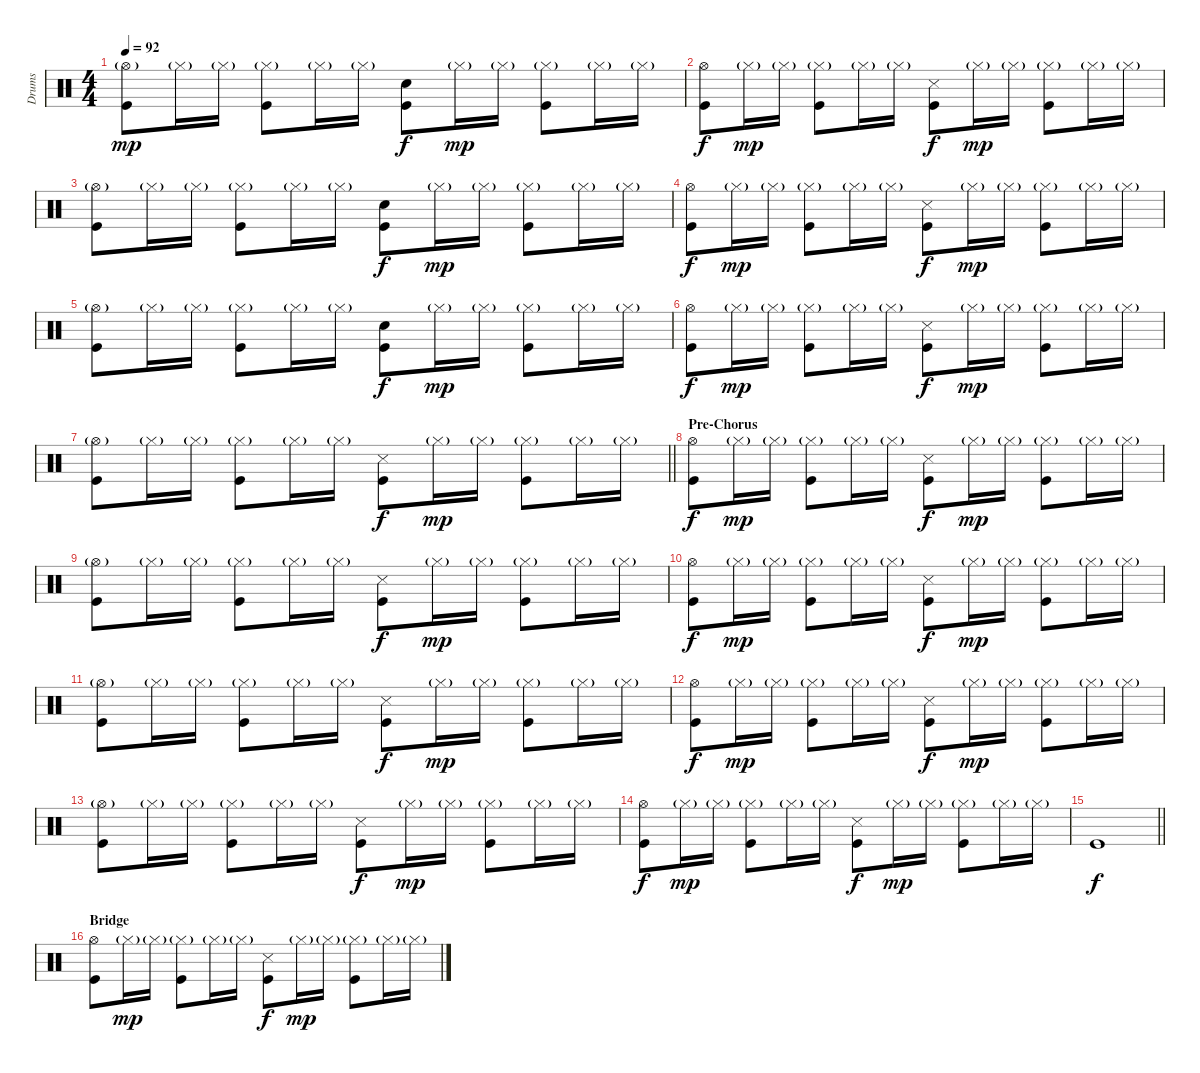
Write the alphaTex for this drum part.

\track ("Drums" "Drums") {instrument percussion}
\staff {score}
\articulation defaults
\ts (4 4)
\tempo 92
\clef neutral
\ks c
("Hi-Hat (open)"{g} "Kick (hit)").8{dy mp} "Hi-Hat (closed)"{g}.16 "Hi-Hat (closed)"{g}.16 ("Hi-Hat (closed)"{g} "Kick (hit)").8 "Hi-Hat (closed)"{g}.16 "Hi-Hat (closed)"{g}.16 ("Snare (hit) 2" "Kick (hit)").8{dy f} "Hi-Hat (closed)"{g}.16{dy mp} "Hi-Hat (closed)"{g}.16 ("Hi-Hat (closed)"{g} "Kick (hit)").8 "Hi-Hat (closed)"{g}.16 "Hi-Hat (closed)"{g}.16 |
("Hi-Hat (open)" "Kick (hit)").8{dy f} "Hi-Hat (closed)"{g}.16{dy mp} "Hi-Hat (closed)"{g}.16 ("Hi-Hat (closed)"{g} "Kick (hit)").8 "Hi-Hat (closed)"{g}.16 "Hi-Hat (closed)"{g}.16 ("Metronome (hit)" "Kick (hit)").8{dy f} "Hi-Hat (closed)"{g}.16{dy mp} "Hi-Hat (closed)"{g}.16 ("Hi-Hat (closed)"{g} "Kick (hit)").8 "Hi-Hat (closed)"{g}.16 "Hi-Hat (closed)"{g}.16 |
("Hi-Hat (open)"{g} "Kick (hit)").8 "Hi-Hat (closed)"{g}.16 "Hi-Hat (closed)"{g}.16 ("Hi-Hat (closed)"{g} "Kick (hit)").8 "Hi-Hat (closed)"{g}.16 "Hi-Hat (closed)"{g}.16 ("Snare (hit) 2" "Kick (hit)").8{dy f} "Hi-Hat (closed)"{g}.16{dy mp} "Hi-Hat (closed)"{g}.16 ("Hi-Hat (closed)"{g} "Kick (hit)").8 "Hi-Hat (closed)"{g}.16 "Hi-Hat (closed)"{g}.16 |
("Hi-Hat (open)" "Kick (hit)").8{dy f} "Hi-Hat (closed)"{g}.16{dy mp} "Hi-Hat (closed)"{g}.16 ("Hi-Hat (closed)"{g} "Kick (hit)").8 "Hi-Hat (closed)"{g}.16 "Hi-Hat (closed)"{g}.16 ("Metronome (hit)" "Kick (hit)").8{dy f} "Hi-Hat (closed)"{g}.16{dy mp} "Hi-Hat (closed)"{g}.16 ("Hi-Hat (closed)"{g} "Kick (hit)").8 "Hi-Hat (closed)"{g}.16 "Hi-Hat (closed)"{g}.16 |
("Hi-Hat (open)"{g} "Kick (hit)").8 "Hi-Hat (closed)"{g}.16 "Hi-Hat (closed)"{g}.16 ("Hi-Hat (closed)"{g} "Kick (hit)").8 "Hi-Hat (closed)"{g}.16 "Hi-Hat (closed)"{g}.16 ("Snare (hit) 2" "Kick (hit)").8{dy f} "Hi-Hat (closed)"{g}.16{dy mp} "Hi-Hat (closed)"{g}.16 ("Hi-Hat (closed)"{g} "Kick (hit)").8 "Hi-Hat (closed)"{g}.16 "Hi-Hat (closed)"{g}.16 |
("Hi-Hat (open)" "Kick (hit)").8{dy f} "Hi-Hat (closed)"{g}.16{dy mp} "Hi-Hat (closed)"{g}.16 ("Hi-Hat (closed)"{g} "Kick (hit)").8 "Hi-Hat (closed)"{g}.16 "Hi-Hat (closed)"{g}.16 ("Metronome (hit)" "Kick (hit)").8{dy f} "Hi-Hat (closed)"{g}.16{dy mp} "Hi-Hat (closed)"{g}.16 ("Hi-Hat (closed)"{g} "Kick (hit)").8 "Hi-Hat (closed)"{g}.16 "Hi-Hat (closed)"{g}.16 |
\barLineRight lightlight
("Hi-Hat (open)"{g} "Kick (hit)").8 "Hi-Hat (closed)"{g}.16 "Hi-Hat (closed)"{g}.16 ("Hi-Hat (closed)"{g} "Kick (hit)").8 "Hi-Hat (closed)"{g}.16 "Hi-Hat (closed)"{g}.16 ("Metronome (hit)" "Kick (hit)").8{dy f} "Hi-Hat (closed)"{g}.16{dy mp} "Hi-Hat (closed)"{g}.16 ("Hi-Hat (closed)"{g} "Kick (hit)").8 "Hi-Hat (closed)"{g}.16 "Hi-Hat (closed)"{g}.16 |
\section ("" "Pre-Chorus")
("Hi-Hat (open)" "Kick (hit)").8{dy f} "Hi-Hat (closed)"{g}.16{dy mp} "Hi-Hat (closed)"{g}.16 ("Hi-Hat (closed)"{g} "Kick (hit)").8 "Hi-Hat (closed)"{g}.16 "Hi-Hat (closed)"{g}.16 ("Metronome (hit)" "Kick (hit)").8{dy f} "Hi-Hat (closed)"{g}.16{dy mp} "Hi-Hat (closed)"{g}.16 ("Hi-Hat (closed)"{g} "Kick (hit)").8 "Hi-Hat (closed)"{g}.16 "Hi-Hat (closed)"{g}.16 |
("Hi-Hat (open)"{g} "Kick (hit)").8 "Hi-Hat (closed)"{g}.16 "Hi-Hat (closed)"{g}.16 ("Hi-Hat (closed)"{g} "Kick (hit)").8 "Hi-Hat (closed)"{g}.16 "Hi-Hat (closed)"{g}.16 ("Metronome (hit)" "Kick (hit)").8{dy f} "Hi-Hat (closed)"{g}.16{dy mp} "Hi-Hat (closed)"{g}.16 ("Hi-Hat (closed)"{g} "Kick (hit)").8 "Hi-Hat (closed)"{g}.16 "Hi-Hat (closed)"{g}.16 |
("Hi-Hat (open)" "Kick (hit)").8{dy f} "Hi-Hat (closed)"{g}.16{dy mp} "Hi-Hat (closed)"{g}.16 ("Hi-Hat (closed)"{g} "Kick (hit)").8 "Hi-Hat (closed)"{g}.16 "Hi-Hat (closed)"{g}.16 ("Metronome (hit)" "Kick (hit)").8{dy f} "Hi-Hat (closed)"{g}.16{dy mp} "Hi-Hat (closed)"{g}.16 ("Hi-Hat (closed)"{g} "Kick (hit)").8 "Hi-Hat (closed)"{g}.16 "Hi-Hat (closed)"{g}.16 |
("Hi-Hat (open)"{g} "Kick (hit)").8 "Hi-Hat (closed)"{g}.16 "Hi-Hat (closed)"{g}.16 ("Hi-Hat (closed)"{g} "Kick (hit)").8 "Hi-Hat (closed)"{g}.16 "Hi-Hat (closed)"{g}.16 ("Metronome (hit)" "Kick (hit)").8{dy f} "Hi-Hat (closed)"{g}.16{dy mp} "Hi-Hat (closed)"{g}.16 ("Hi-Hat (closed)"{g} "Kick (hit)").8 "Hi-Hat (closed)"{g}.16 "Hi-Hat (closed)"{g}.16 |
("Hi-Hat (open)" "Kick (hit)").8{dy f} "Hi-Hat (closed)"{g}.16{dy mp} "Hi-Hat (closed)"{g}.16 ("Hi-Hat (closed)"{g} "Kick (hit)").8 "Hi-Hat (closed)"{g}.16 "Hi-Hat (closed)"{g}.16 ("Metronome (hit)" "Kick (hit)").8{dy f} "Hi-Hat (closed)"{g}.16{dy mp} "Hi-Hat (closed)"{g}.16 ("Hi-Hat (closed)"{g} "Kick (hit)").8 "Hi-Hat (closed)"{g}.16 "Hi-Hat (closed)"{g}.16 |
("Hi-Hat (open)"{g} "Kick (hit)").8 "Hi-Hat (closed)"{g}.16 "Hi-Hat (closed)"{g}.16 ("Hi-Hat (closed)"{g} "Kick (hit)").8 "Hi-Hat (closed)"{g}.16 "Hi-Hat (closed)"{g}.16 ("Metronome (hit)" "Kick (hit)").8{dy f} "Hi-Hat (closed)"{g}.16{dy mp} "Hi-Hat (closed)"{g}.16 ("Hi-Hat (closed)"{g} "Kick (hit)").8 "Hi-Hat (closed)"{g}.16 "Hi-Hat (closed)"{g}.16 |
("Hi-Hat (open)" "Kick (hit)").8{dy f} "Hi-Hat (closed)"{g}.16{dy mp} "Hi-Hat (closed)"{g}.16 ("Hi-Hat (closed)"{g} "Kick (hit)").8 "Hi-Hat (closed)"{g}.16 "Hi-Hat (closed)"{g}.16 ("Metronome (hit)" "Kick (hit)").8{dy f} "Hi-Hat (closed)"{g}.16{dy mp} "Hi-Hat (closed)"{g}.16 ("Hi-Hat (closed)"{g} "Kick (hit)").8 "Hi-Hat (closed)"{g}.16 "Hi-Hat (closed)"{g}.16 |
\barLineRight lightlight "Kick (hit)".1{dy f}
|
\section ("" "Bridge")
("Hi-Hat (open)" "Kick (hit)").8 "Hi-Hat (closed)"{g}.16{dy mp} "Hi-Hat (closed)"{g}.16 ("Hi-Hat (closed)"{g} "Kick (hit)").8 "Hi-Hat (closed)"{g}.16 "Hi-Hat (closed)"{g}.16 ("Metronome (hit)" "Kick (hit)").8{dy f} "Hi-Hat (closed)"{g}.16{dy mp} "Hi-Hat (closed)"{g}.16 ("Hi-Hat (closed)"{g} "Kick (hit)").8 "Hi-Hat (closed)"{g}.16 "Hi-Hat (closed)"{g}.16
